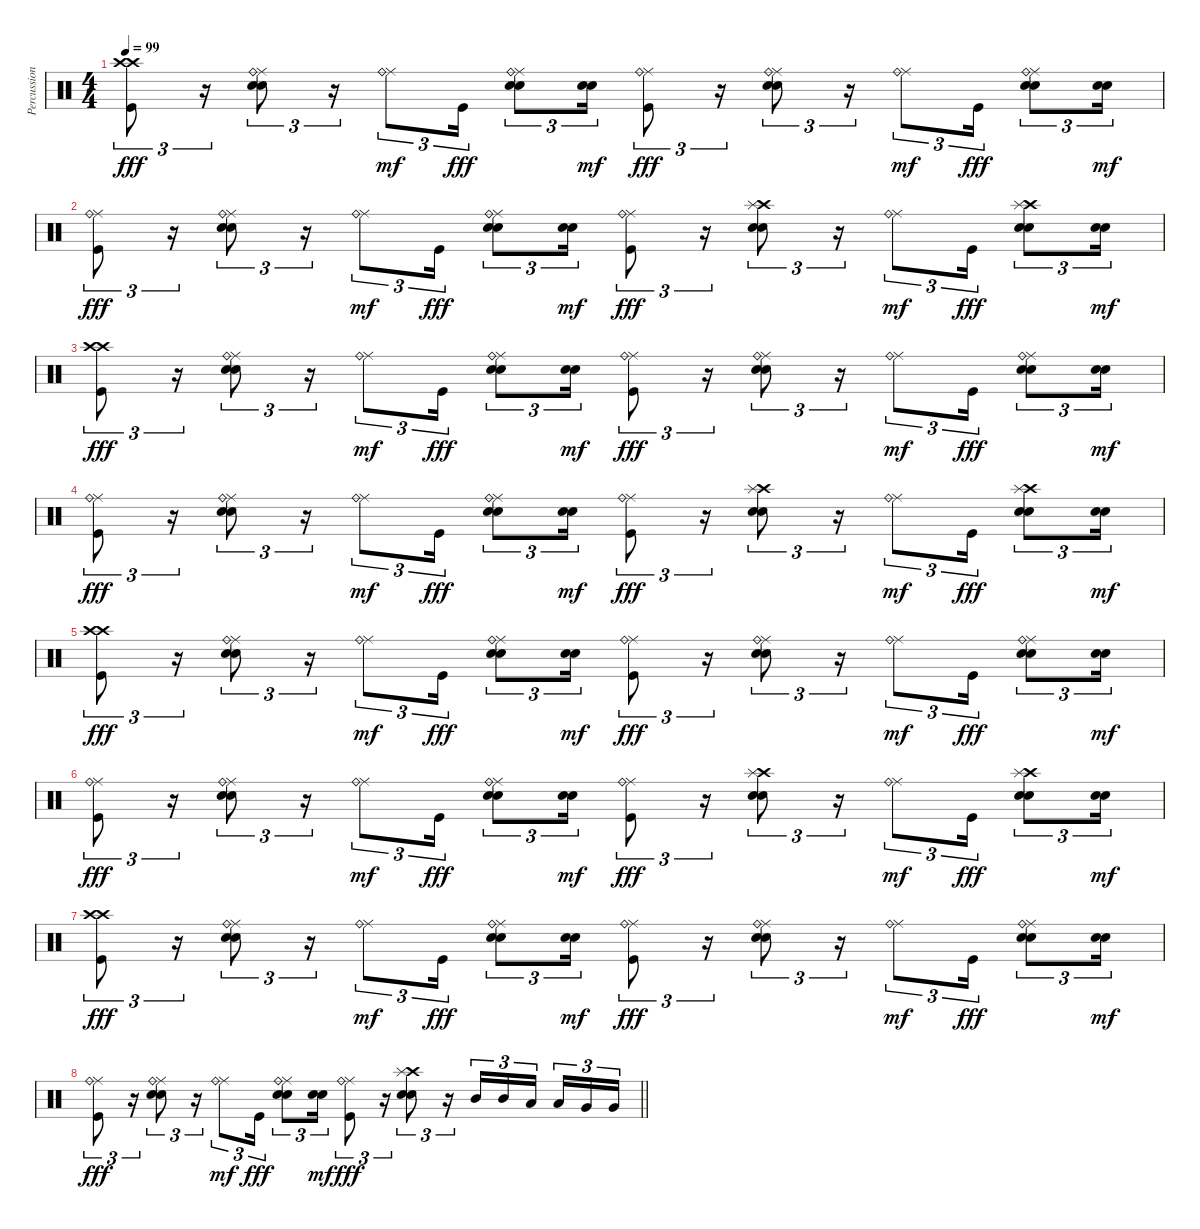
\track ("Percussion" "Percussion") {instrument percussion}
\staff {score}
\articulation defaults
\ts (4 4)
\tempo 99
\clef neutral
\ks c
("Crash high (hit)" "Crash high (hit)" "Kick (hit)").8{tu (3 2) dy fff} r.16{tu (3 2)} ("Ride (middle)" "Ride (bell)" "Snare (hit) 2" "Electric Snare (hit)").8{tu (3 2)} r.16{tu (3 2)} ("Ride (middle)" "Ride (bell)").8{tu (3 2) dy mf} "Kick (hit)".16{tu (3 2) dy fff} ("Ride (middle)" "Ride (bell)" "Snare (hit) 2" "Electric Snare (hit)").8{tu (3 2)} ("Snare (hit) 2" "Electric Snare (hit)").16{tu (3 2) dy mf} ("Ride (middle)" "Ride (bell)" "Kick (hit)").8{tu (3 2) dy fff} r.16{tu (3 2)} ("Ride (middle)" "Ride (bell)" "Snare (hit) 2" "Electric Snare (hit)").8{tu (3 2)} r.16{tu (3 2)} ("Ride (middle)" "Ride (bell)").8{tu (3 2) dy mf} "Kick (hit)".16{tu (3 2) dy fff} ("Ride (middle)" "Ride (bell)" "Snare (hit) 2" "Electric Snare (hit)").8{tu (3 2)} ("Snare (hit) 2" "Electric Snare (hit)").16{tu (3 2) dy mf} |
("Ride (middle)" "Ride (bell)" "Kick (hit)").8{tu (3 2) dy fff} r.16{tu (3 2)} ("Ride (middle)" "Ride (bell)" "Snare (hit) 2" "Electric Snare (hit)").8{tu (3 2)} r.16{tu (3 2)} ("Ride (middle)" "Ride (bell)").8{tu (3 2) dy mf} "Kick (hit)".16{tu (3 2) dy fff} ("Ride (middle)" "Ride (bell)" "Snare (hit) 2" "Electric Snare (hit)").8{tu (3 2)} ("Snare (hit) 2" "Electric Snare (hit)").16{tu (3 2) dy mf} ("Ride (middle)" "Ride (bell)" "Kick (hit)").8{tu (3 2) dy fff} r.16{tu (3 2)} ("Crash high (hit)" "Splash (hit)" "Snare (hit) 2" "Electric Snare (hit)").8{tu (3 2)} r.16{tu (3 2)} ("Ride (middle)" "Ride (bell)").8{tu (3 2) dy mf} "Kick (hit)".16{tu (3 2) dy fff} ("Crash high (hit)" "Splash (hit)" "Snare (hit) 2" "Electric Snare (hit)").8{tu (3 2)} ("Snare (hit) 2" "Electric Snare (hit)").16{tu (3 2) dy mf} |
("Crash high (hit)" "Crash high (hit)" "Kick (hit)").8{tu (3 2) dy fff} r.16{tu (3 2)} ("Ride (middle)" "Ride (bell)" "Snare (hit) 2" "Electric Snare (hit)").8{tu (3 2)} r.16{tu (3 2)} ("Ride (middle)" "Ride (bell)").8{tu (3 2) dy mf} "Kick (hit)".16{tu (3 2) dy fff} ("Ride (middle)" "Ride (bell)" "Snare (hit) 2" "Electric Snare (hit)").8{tu (3 2)} ("Snare (hit) 2" "Electric Snare (hit)").16{tu (3 2) dy mf} ("Ride (middle)" "Ride (bell)" "Kick (hit)").8{tu (3 2) dy fff} r.16{tu (3 2)} ("Ride (middle)" "Ride (bell)" "Snare (hit) 2" "Electric Snare (hit)").8{tu (3 2)} r.16{tu (3 2)} ("Ride (middle)" "Ride (bell)").8{tu (3 2) dy mf} "Kick (hit)".16{tu (3 2) dy fff} ("Ride (middle)" "Ride (bell)" "Snare (hit) 2" "Electric Snare (hit)").8{tu (3 2)} ("Snare (hit) 2" "Electric Snare (hit)").16{tu (3 2) dy mf} |
("Ride (middle)" "Ride (bell)" "Kick (hit)").8{tu (3 2) dy fff} r.16{tu (3 2)} ("Ride (middle)" "Ride (bell)" "Snare (hit) 2" "Electric Snare (hit)").8{tu (3 2)} r.16{tu (3 2)} ("Ride (middle)" "Ride (bell)").8{tu (3 2) dy mf} "Kick (hit)".16{tu (3 2) dy fff} ("Ride (middle)" "Ride (bell)" "Snare (hit) 2" "Electric Snare (hit)").8{tu (3 2)} ("Snare (hit) 2" "Electric Snare (hit)").16{tu (3 2) dy mf} ("Ride (middle)" "Ride (bell)" "Kick (hit)").8{tu (3 2) dy fff} r.16{tu (3 2)} ("Crash high (hit)" "Splash (hit)" "Snare (hit) 2" "Electric Snare (hit)").8{tu (3 2)} r.16{tu (3 2)} ("Ride (middle)" "Ride (bell)").8{tu (3 2) dy mf} "Kick (hit)".16{tu (3 2) dy fff} ("Crash high (hit)" "Splash (hit)" "Snare (hit) 2" "Electric Snare (hit)").8{tu (3 2)} ("Snare (hit) 2" "Electric Snare (hit)").16{tu (3 2) dy mf} |
("Crash high (hit)" "Crash high (hit)" "Kick (hit)").8{tu (3 2) dy fff} r.16{tu (3 2)} ("Ride (middle)" "Ride (bell)" "Snare (hit) 2" "Electric Snare (hit)").8{tu (3 2)} r.16{tu (3 2)} ("Ride (middle)" "Ride (bell)").8{tu (3 2) dy mf} "Kick (hit)".16{tu (3 2) dy fff} ("Ride (middle)" "Ride (bell)" "Snare (hit) 2" "Electric Snare (hit)").8{tu (3 2)} ("Snare (hit) 2" "Electric Snare (hit)").16{tu (3 2) dy mf} ("Ride (middle)" "Ride (bell)" "Kick (hit)").8{tu (3 2) dy fff} r.16{tu (3 2)} ("Ride (middle)" "Ride (bell)" "Snare (hit) 2" "Electric Snare (hit)").8{tu (3 2)} r.16{tu (3 2)} ("Ride (middle)" "Ride (bell)").8{tu (3 2) dy mf} "Kick (hit)".16{tu (3 2) dy fff} ("Ride (middle)" "Ride (bell)" "Snare (hit) 2" "Electric Snare (hit)").8{tu (3 2)} ("Snare (hit) 2" "Electric Snare (hit)").16{tu (3 2) dy mf} |
("Ride (middle)" "Ride (bell)" "Kick (hit)").8{tu (3 2) dy fff} r.16{tu (3 2)} ("Ride (middle)" "Ride (bell)" "Snare (hit) 2" "Electric Snare (hit)").8{tu (3 2)} r.16{tu (3 2)} ("Ride (middle)" "Ride (bell)").8{tu (3 2) dy mf} "Kick (hit)".16{tu (3 2) dy fff} ("Ride (middle)" "Ride (bell)" "Snare (hit) 2" "Electric Snare (hit)").8{tu (3 2)} ("Snare (hit) 2" "Electric Snare (hit)").16{tu (3 2) dy mf} ("Ride (middle)" "Ride (bell)" "Kick (hit)").8{tu (3 2) dy fff} r.16{tu (3 2)} ("Crash high (hit)" "Splash (hit)" "Snare (hit) 2" "Electric Snare (hit)").8{tu (3 2)} r.16{tu (3 2)} ("Ride (middle)" "Ride (bell)").8{tu (3 2) dy mf} "Kick (hit)".16{tu (3 2) dy fff} ("Crash high (hit)" "Splash (hit)" "Snare (hit) 2" "Electric Snare (hit)").8{tu (3 2)} ("Snare (hit) 2" "Electric Snare (hit)").16{tu (3 2) dy mf} |
("Crash high (hit)" "Crash high (hit)" "Kick (hit)").8{tu (3 2) dy fff} r.16{tu (3 2)} ("Ride (middle)" "Ride (bell)" "Snare (hit) 2" "Electric Snare (hit)").8{tu (3 2)} r.16{tu (3 2)} ("Ride (middle)" "Ride (bell)").8{tu (3 2) dy mf} "Kick (hit)".16{tu (3 2) dy fff} ("Ride (middle)" "Ride (bell)" "Snare (hit) 2" "Electric Snare (hit)").8{tu (3 2)} ("Snare (hit) 2" "Electric Snare (hit)").16{tu (3 2) dy mf} ("Ride (middle)" "Ride (bell)" "Kick (hit)").8{tu (3 2) dy fff} r.16{tu (3 2)} ("Ride (middle)" "Ride (bell)" "Snare (hit) 2" "Electric Snare (hit)").8{tu (3 2)} r.16{tu (3 2)} ("Ride (middle)" "Ride (bell)").8{tu (3 2) dy mf} "Kick (hit)".16{tu (3 2) dy fff} ("Ride (middle)" "Ride (bell)" "Snare (hit) 2" "Electric Snare (hit)").8{tu (3 2)} ("Snare (hit) 2" "Electric Snare (hit)").16{tu (3 2) dy mf} |
\barLineRight lightlight
("Ride (middle)" "Ride (bell)" "Kick (hit)").8{tu (3 2) dy fff} r.16{tu (3 2)} ("Ride (middle)" "Ride (bell)" "Snare (hit) 2" "Electric Snare (hit)").8{tu (3 2)} r.16{tu (3 2)} ("Ride (middle)" "Ride (bell)").8{tu (3 2) dy mf} "Kick (hit)".16{tu (3 2) dy fff} ("Ride (middle)" "Ride (bell)" "Snare (hit) 2" "Electric Snare (hit)").8{tu (3 2)} ("Snare (hit) 2" "Electric Snare (hit)").16{tu (3 2) dy mf} ("Ride (middle)" "Ride (bell)" "Kick (hit)").8{tu (3 2) dy fff} r.16{tu (3 2)} ("Crash high (hit)" "Splash (hit)" "Snare (hit) 2" "Electric Snare (hit)").8{tu (3 2)} r.16{tu (3 2)} "Mid Tom (hit)".16{tu (3 2)} "Mid Tom (hit)".16{tu (3 2)} "Low Tom (hit)".16{tu (3 2) beam splitsecondary} "Low Tom (hit)".16{tu (3 2)} "Very Low Tom (hit)".16{tu (3 2)} "Very Low Tom (hit)".16{tu (3 2)}
